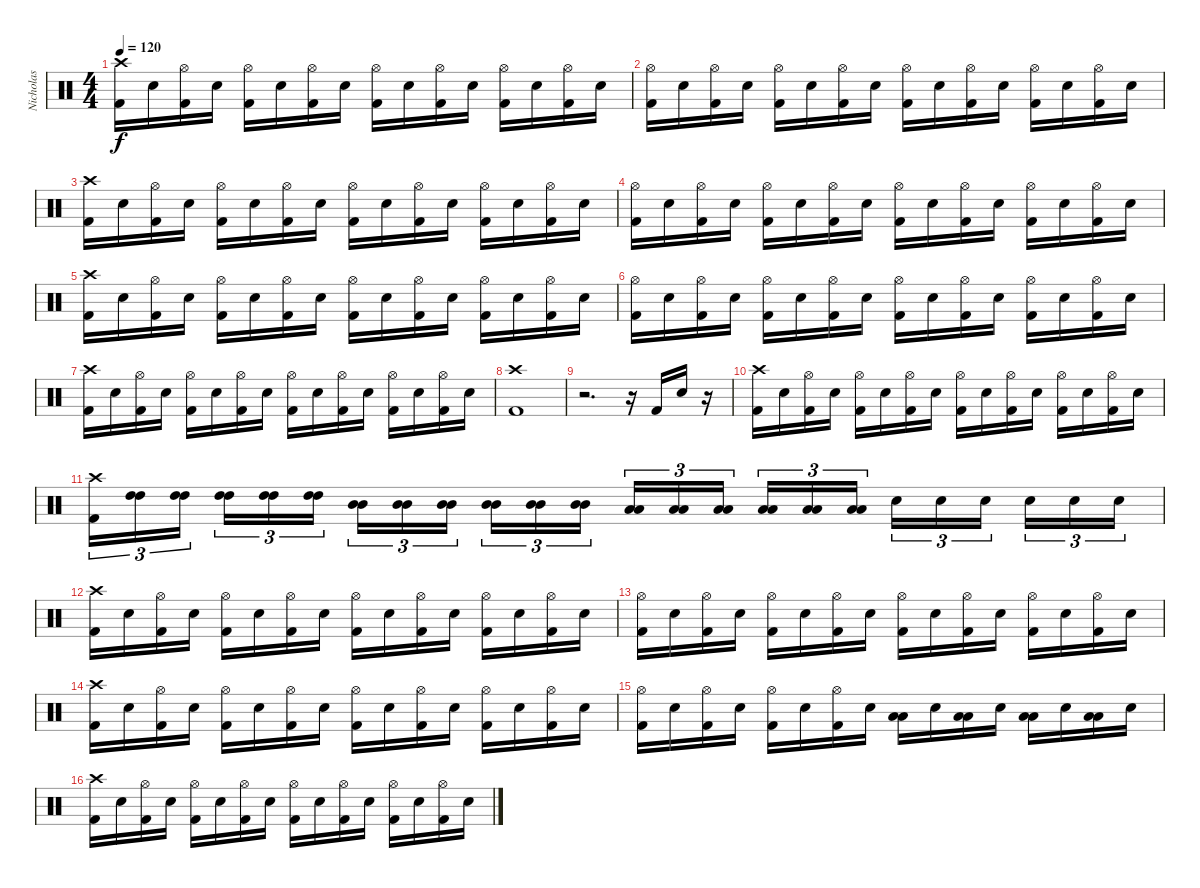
\track ("Nicholas" "Nicholas") {instrument percussion}
\staff {score}
\articulation defaults
\ts (4 4)
\tempo 120
\clef neutral
\ks c
("Crash high (hit)" "Kick (hit) 2").16{dy f balance 8} "Electric Snare (hit)".16 ("Hi-Hat (open)" "Kick (hit) 2").16 "Electric Snare (hit)".16 ("Hi-Hat (open)" "Kick (hit) 2").16 "Electric Snare (hit)".16 ("Hi-Hat (open)" "Kick (hit) 2").16 "Electric Snare (hit)".16 ("Hi-Hat (open)" "Kick (hit) 2").16 "Electric Snare (hit)".16 ("Hi-Hat (open)" "Kick (hit) 2").16 "Electric Snare (hit)".16 ("Hi-Hat (open)" "Kick (hit) 2").16 "Electric Snare (hit)".16 ("Hi-Hat (open)" "Kick (hit) 2").16 "Electric Snare (hit)".16 |
("Hi-Hat (open)" "Kick (hit) 2").16 "Electric Snare (hit)".16 ("Hi-Hat (open)" "Kick (hit) 2").16 "Electric Snare (hit)".16 ("Hi-Hat (open)" "Kick (hit) 2").16 "Electric Snare (hit)".16 ("Hi-Hat (open)" "Kick (hit) 2").16 "Electric Snare (hit)".16 ("Hi-Hat (open)" "Kick (hit) 2").16 "Electric Snare (hit)".16 ("Hi-Hat (open)" "Kick (hit) 2").16 "Electric Snare (hit)".16 ("Hi-Hat (open)" "Kick (hit) 2").16 "Electric Snare (hit)".16 ("Hi-Hat (open)" "Kick (hit) 2").16 "Electric Snare (hit)".16 |
("Crash high (hit)" "Kick (hit) 2").16 "Electric Snare (hit)".16 ("Hi-Hat (open)" "Kick (hit) 2").16 "Electric Snare (hit)".16 ("Hi-Hat (open)" "Kick (hit) 2").16 "Electric Snare (hit)".16 ("Hi-Hat (open)" "Kick (hit) 2").16 "Electric Snare (hit)".16 ("Hi-Hat (open)" "Kick (hit) 2").16 "Electric Snare (hit)".16 ("Hi-Hat (open)" "Kick (hit) 2").16 "Electric Snare (hit)".16 ("Hi-Hat (open)" "Kick (hit) 2").16 "Electric Snare (hit)".16 ("Hi-Hat (open)" "Kick (hit) 2").16 "Electric Snare (hit)".16 |
("Hi-Hat (open)" "Kick (hit) 2").16 "Electric Snare (hit)".16 ("Hi-Hat (open)" "Kick (hit) 2").16 "Electric Snare (hit)".16 ("Hi-Hat (open)" "Kick (hit) 2").16 "Electric Snare (hit)".16 ("Hi-Hat (open)" "Kick (hit) 2").16 "Electric Snare (hit)".16 ("Hi-Hat (open)" "Kick (hit) 2").16 "Electric Snare (hit)".16 ("Hi-Hat (open)" "Kick (hit) 2").16 "Electric Snare (hit)".16 ("Hi-Hat (open)" "Kick (hit) 2").16 "Electric Snare (hit)".16 ("Hi-Hat (open)" "Kick (hit) 2").16 "Electric Snare (hit)".16 |
("Crash high (hit)" "Kick (hit) 2").16 "Electric Snare (hit)".16 ("Hi-Hat (open)" "Kick (hit) 2").16 "Electric Snare (hit)".16 ("Hi-Hat (open)" "Kick (hit) 2").16 "Electric Snare (hit)".16 ("Hi-Hat (open)" "Kick (hit) 2").16 "Electric Snare (hit)".16 ("Hi-Hat (open)" "Kick (hit) 2").16 "Electric Snare (hit)".16 ("Hi-Hat (open)" "Kick (hit) 2").16 "Electric Snare (hit)".16 ("Hi-Hat (open)" "Kick (hit) 2").16 "Electric Snare (hit)".16 ("Hi-Hat (open)" "Kick (hit) 2").16 "Electric Snare (hit)".16 |
("Hi-Hat (open)" "Kick (hit) 2").16 "Electric Snare (hit)".16 ("Hi-Hat (open)" "Kick (hit) 2").16 "Electric Snare (hit)".16 ("Hi-Hat (open)" "Kick (hit) 2").16 "Electric Snare (hit)".16 ("Hi-Hat (open)" "Kick (hit) 2").16 "Electric Snare (hit)".16 ("Hi-Hat (open)" "Kick (hit) 2").16 "Electric Snare (hit)".16 ("Hi-Hat (open)" "Kick (hit) 2").16 "Electric Snare (hit)".16 ("Hi-Hat (open)" "Kick (hit) 2").16 "Electric Snare (hit)".16 ("Hi-Hat (open)" "Kick (hit) 2").16 "Electric Snare (hit)".16 |
("Crash high (hit)" "Kick (hit) 2").16 "Electric Snare (hit)".16 ("Hi-Hat (open)" "Kick (hit) 2").16 "Electric Snare (hit)".16 ("Hi-Hat (open)" "Kick (hit) 2").16 "Electric Snare (hit)".16 ("Hi-Hat (open)" "Kick (hit) 2").16 "Electric Snare (hit)".16 ("Hi-Hat (open)" "Kick (hit) 2").16 "Electric Snare (hit)".16 ("Hi-Hat (open)" "Kick (hit) 2").16 "Electric Snare (hit)".16 ("Hi-Hat (open)" "Kick (hit) 2").16 "Electric Snare (hit)".16 ("Hi-Hat (open)" "Kick (hit) 2").16 "Electric Snare (hit)".16 |
("Crash high (hit)" "Kick (hit) 2").1 |
r.2{d} r.16 "Kick (hit) 2".16 "Electric Snare (hit)".16 r.16 |
("Crash high (hit)" "Kick (hit) 2").16 "Electric Snare (hit)".16 ("Hi-Hat (open)" "Kick (hit) 2").16 "Electric Snare (hit)".16 ("Hi-Hat (open)" "Kick (hit) 2").16 "Electric Snare (hit)".16 ("Hi-Hat (open)" "Kick (hit) 2").16 "Electric Snare (hit)".16 ("Hi-Hat (open)" "Kick (hit) 2").16 "Electric Snare (hit)".16 ("Hi-Hat (open)" "Kick (hit) 2").16 "Electric Snare (hit)".16 ("Hi-Hat (open)" "Kick (hit) 2").16 "Electric Snare (hit)".16 ("Hi-Hat (open)" "Kick (hit) 2").16 "Electric Snare (hit)".16 |
("Crash high (hit)" "Kick (hit) 2").16{tu (3 2)} ("High Tom (hit)" "High Tom (hit)").16{tu (3 2) balance 10} ("High Tom (hit)" "High Tom (hit)").16{tu (3 2)} ("High Tom (hit)" "High Tom (hit)").16{tu (3 2)} ("High Tom (hit)" "High Tom (hit)").16{tu (3 2)} ("High Tom (hit)" "High Tom (hit)").16{tu (3 2)} ("Mid Tom (hit)" "Mid Tom (hit)").16{tu (3 2) balance 8} ("Mid Tom (hit)" "Mid Tom (hit)").16{tu (3 2)} ("Mid Tom (hit)" "Mid Tom (hit)").16{tu (3 2)} ("Mid Tom (hit)" "Mid Tom (hit)").16{tu (3 2)} ("Mid Tom (hit)" "Mid Tom (hit)").16{tu (3 2)} ("Mid Tom (hit)" "Mid Tom (hit)").16{tu (3 2)} ("Low Tom (hit)" "Low Tom (hit)").16{tu (3 2) balance 6} ("Low Tom (hit)" "Low Tom (hit)").16{tu (3 2)} ("Low Tom (hit)" "Low Tom (hit)").16{tu (3 2)} ("Low Tom (hit)" "Low Tom (hit)").16{tu (3 2)} ("Low Tom (hit)" "Low Tom (hit)").16{tu (3 2)} ("Low Tom (hit)" "Low Tom (hit)").16{tu (3 2)} "Electric Snare (hit)".16{tu (3 2) balance 8} "Electric Snare (hit)".16{tu (3 2)} "Electric Snare (hit)".16{tu (3 2)} "Electric Snare (hit)".16{tu (3 2)} "Electric Snare (hit)".16{tu (3 2)} "Electric Snare (hit)".16{tu (3 2)} |
("Crash high (hit)" "Kick (hit) 2").16 "Electric Snare (hit)".16 ("Hi-Hat (open)" "Kick (hit) 2").16 "Electric Snare (hit)".16 ("Hi-Hat (open)" "Kick (hit) 2").16 "Electric Snare (hit)".16 ("Hi-Hat (open)" "Kick (hit) 2").16 "Electric Snare (hit)".16 ("Hi-Hat (open)" "Kick (hit) 2").16 "Electric Snare (hit)".16 ("Hi-Hat (open)" "Kick (hit) 2").16 "Electric Snare (hit)".16 ("Hi-Hat (open)" "Kick (hit) 2").16 "Electric Snare (hit)".16 ("Hi-Hat (open)" "Kick (hit) 2").16 "Electric Snare (hit)".16 |
("Hi-Hat (open)" "Kick (hit) 2").16 "Electric Snare (hit)".16 ("Hi-Hat (open)" "Kick (hit) 2").16 "Electric Snare (hit)".16 ("Hi-Hat (open)" "Kick (hit) 2").16 "Electric Snare (hit)".16 ("Hi-Hat (open)" "Kick (hit) 2").16 "Electric Snare (hit)".16 ("Hi-Hat (open)" "Kick (hit) 2").16 "Electric Snare (hit)".16 ("Hi-Hat (open)" "Kick (hit) 2").16 "Electric Snare (hit)".16 ("Hi-Hat (open)" "Kick (hit) 2").16 "Electric Snare (hit)".16 ("Hi-Hat (open)" "Kick (hit) 2").16 "Electric Snare (hit)".16 |
("Crash high (hit)" "Kick (hit) 2").16 "Electric Snare (hit)".16 ("Hi-Hat (open)" "Kick (hit) 2").16 "Electric Snare (hit)".16 ("Hi-Hat (open)" "Kick (hit) 2").16 "Electric Snare (hit)".16 ("Hi-Hat (open)" "Kick (hit) 2").16 "Electric Snare (hit)".16 ("Hi-Hat (open)" "Kick (hit) 2").16 "Electric Snare (hit)".16 ("Hi-Hat (open)" "Kick (hit) 2").16 "Electric Snare (hit)".16 ("Hi-Hat (open)" "Kick (hit) 2").16 "Electric Snare (hit)".16 ("Hi-Hat (open)" "Kick (hit) 2").16 "Electric Snare (hit)".16 |
("Hi-Hat (open)" "Kick (hit) 2").16 "Electric Snare (hit)".16 ("Hi-Hat (open)" "Kick (hit) 2").16 "Electric Snare (hit)".16 ("Hi-Hat (open)" "Kick (hit) 2").16 "Electric Snare (hit)".16 ("Hi-Hat (open)" "Kick (hit) 2").16 "Electric Snare (hit)".16 ("Low Tom (hit)" "Low Tom (hit)").16{balance 10} "Electric Snare (hit)".16{balance 8} ("Low Tom (hit)" "Low Tom (hit)").16{balance 10} "Electric Snare (hit)".16{balance 8} ("Low Tom (hit)" "Low Tom (hit)").16{balance 10} "Electric Snare (hit)".16{balance 8} ("Low Tom (hit)" "Low Tom (hit)").16{balance 10} "Electric Snare (hit)".16{balance 8} |
("Crash high (hit)" "Kick (hit) 2").16 "Electric Snare (hit)".16 ("Hi-Hat (open)" "Kick (hit) 2").16 "Electric Snare (hit)".16 ("Hi-Hat (open)" "Kick (hit) 2").16 "Electric Snare (hit)".16 ("Hi-Hat (open)" "Kick (hit) 2").16 "Electric Snare (hit)".16 ("Hi-Hat (open)" "Kick (hit) 2").16 "Electric Snare (hit)".16 ("Hi-Hat (open)" "Kick (hit) 2").16 "Electric Snare (hit)".16 ("Hi-Hat (open)" "Kick (hit) 2").16 "Electric Snare (hit)".16 ("Hi-Hat (open)" "Kick (hit) 2").16 "Electric Snare (hit)".16
